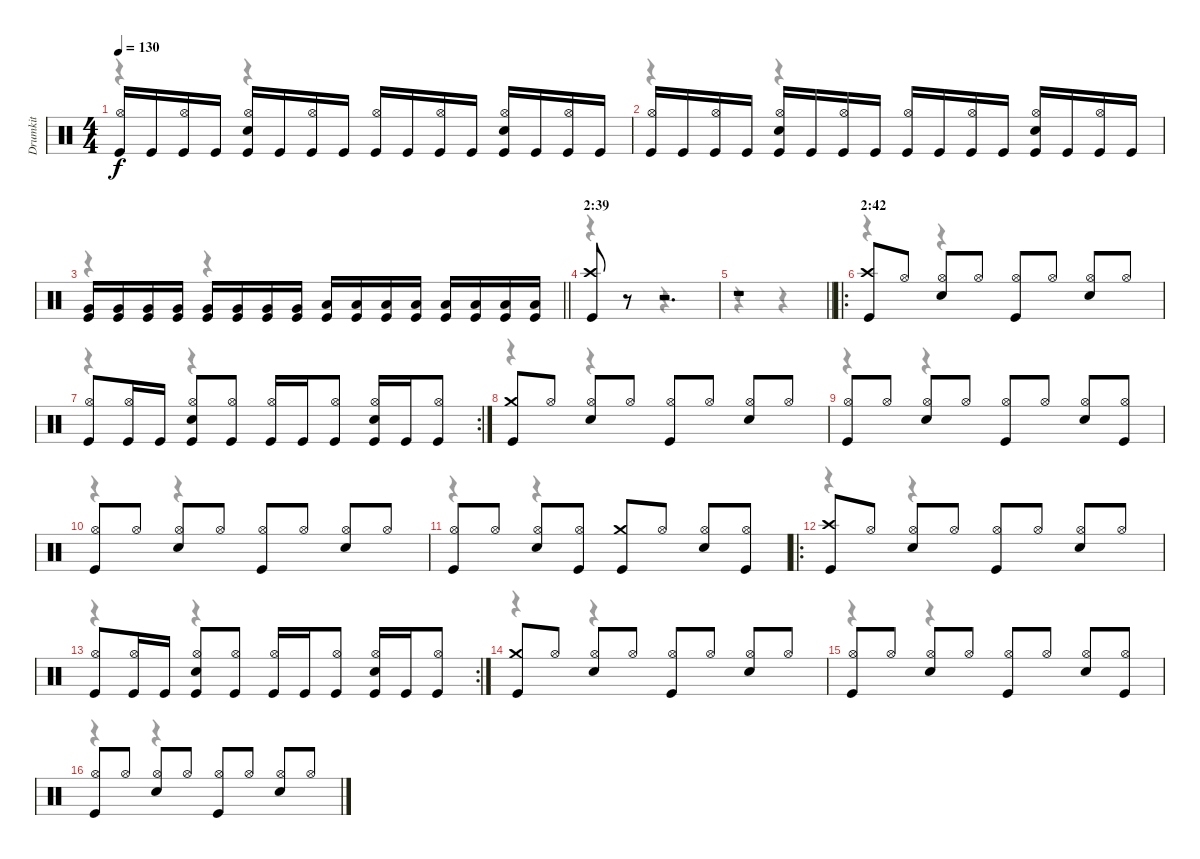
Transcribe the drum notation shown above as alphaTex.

\track ("Drumkit" "Drumkit") {instrument percussion}
\staff {score}
\articulation defaults
\voice
\ts (4 4)
\tempo 130
\clef neutral
\ks c
("Hi-Hat (open)" "Kick (hit)").16{dy f} "Kick (hit)".16 ("Hi-Hat (open)" "Kick (hit)").16 "Kick (hit)".16 ("Hi-Hat (open)" "Snare (hit) 2" "Kick (hit)").16 "Kick (hit)".16 ("Hi-Hat (open)" "Kick (hit)").16 "Kick (hit)".16 ("Hi-Hat (open)" "Kick (hit)").16 "Kick (hit)".16 ("Hi-Hat (open)" "Kick (hit)").16 "Kick (hit)".16 ("Hi-Hat (open)" "Snare (hit) 2" "Kick (hit)").16 "Kick (hit)".16 ("Hi-Hat (open)" "Kick (hit)").16 "Kick (hit)".16 |
("Hi-Hat (open)" "Kick (hit)").16 "Kick (hit)".16 ("Hi-Hat (open)" "Kick (hit)").16 "Kick (hit)".16 ("Hi-Hat (open)" "Snare (hit) 2" "Kick (hit)").16 "Kick (hit)".16 ("Hi-Hat (open)" "Kick (hit)").16 "Kick (hit)".16 ("Hi-Hat (open)" "Kick (hit)").16 "Kick (hit)".16 ("Hi-Hat (open)" "Kick (hit)").16 "Kick (hit)".16 ("Hi-Hat (open)" "Snare (hit) 2" "Kick (hit)").16 "Kick (hit)".16 ("Hi-Hat (open)" "Kick (hit)").16 "Kick (hit)".16 |
\barLineRight lightlight
("Very Low Tom (hit)" "Kick (hit)").16 ("Very Low Tom (hit)" "Kick (hit)").16 ("Very Low Tom (hit)" "Kick (hit)").16 ("Very Low Tom (hit)" "Kick (hit)").16 ("Very Low Tom (hit)" "Kick (hit)").16 ("Very Low Tom (hit)" "Kick (hit)").16 ("Very Low Tom (hit)" "Kick (hit)").16 ("Very Low Tom (hit)" "Kick (hit)").16 ("Low Floor Tom (hit)" "Kick (hit)").16 ("Low Floor Tom (hit)" "Kick (hit)").16 ("Low Floor Tom (hit)" "Kick (hit)").16 ("Low Floor Tom (hit)" "Kick (hit)").16 ("Low Floor Tom (hit)" "Kick (hit)").16 ("Low Floor Tom (hit)" "Kick (hit)").16 ("Low Floor Tom (hit)" "Kick (hit)").16 ("Low Floor Tom (hit)" "Kick (hit)").16 |
\section ("" "2:39")
("Crash high (hit)" "Kick (hit)").8 r.8 r.2{d} |
\barLineRight lightlight
r.1 |
\ro
\section ("" "2:42")
("Crash high (hit)" "Kick (hit)").8 "Hi-Hat (open)".8 ("Hi-Hat (open)" "Snare (hit) 2").8 "Hi-Hat (open)".8 ("Hi-Hat (open)" "Kick (hit)").8 "Hi-Hat (open)".8 ("Hi-Hat (open)" "Snare (hit) 2").8 "Hi-Hat (open)".8 |
\rc 2
("Hi-Hat (open)" "Kick (hit)").8 ("Hi-Hat (open)" "Kick (hit)").16 "Kick (hit)".16 ("Hi-Hat (open)" "Snare (hit) 2" "Kick (hit)").8 ("Hi-Hat (open)" "Kick (hit)").8 ("Hi-Hat (open)" "Kick (hit)").16 "Kick (hit)".16 ("Hi-Hat (open)" "Kick (hit)").8 ("Hi-Hat (open)" "Snare (hit) 2" "Kick (hit)").16 "Kick (hit)".16 ("Hi-Hat (open)" "Kick (hit)").8 |
("Crash medium (hit)" "Kick (hit)").8 "Hi-Hat (open)".8 ("Hi-Hat (open)" "Snare (hit) 2").8 "Hi-Hat (open)".8 ("Hi-Hat (open)" "Kick (hit)").8 "Hi-Hat (open)".8 ("Hi-Hat (open)" "Snare (hit) 2").8 "Hi-Hat (open)".8 |
("Hi-Hat (open)" "Kick (hit)").8 "Hi-Hat (open)".8 ("Hi-Hat (open)" "Snare (hit) 2").8 "Hi-Hat (open)".8 ("Hi-Hat (open)" "Kick (hit)").8 "Hi-Hat (open)".8 ("Hi-Hat (open)" "Snare (hit) 2").8 ("Hi-Hat (open)" "Kick (hit)").8 |
("Hi-Hat (open)" "Kick (hit)").8 "Hi-Hat (open)".8 ("Hi-Hat (open)" "Snare (hit) 2").8 "Hi-Hat (open)".8 ("Hi-Hat (open)" "Kick (hit)").8 "Hi-Hat (open)".8 ("Hi-Hat (open)" "Snare (hit) 2").8 "Hi-Hat (open)".8 |
("Hi-Hat (open)" "Kick (hit)").8 "Hi-Hat (open)".8 ("Hi-Hat (open)" "Snare (hit) 2").8 ("Hi-Hat (open)" "Kick (hit)").8 ("Crash medium (hit)" "Kick (hit)").8 "Hi-Hat (open)".8 ("Hi-Hat (open)" "Snare (hit) 2").8 ("Hi-Hat (open)" "Kick (hit)").8 |
\ro
("Crash high (hit)" "Kick (hit)").8 "Hi-Hat (open)".8 ("Hi-Hat (open)" "Snare (hit) 2").8 "Hi-Hat (open)".8 ("Hi-Hat (open)" "Kick (hit)").8 "Hi-Hat (open)".8 ("Hi-Hat (open)" "Snare (hit) 2").8 "Hi-Hat (open)".8 |
\rc 2
("Hi-Hat (open)" "Kick (hit)").8 ("Hi-Hat (open)" "Kick (hit)").16 "Kick (hit)".16 ("Hi-Hat (open)" "Snare (hit) 2" "Kick (hit)").8 ("Hi-Hat (open)" "Kick (hit)").8 ("Hi-Hat (open)" "Kick (hit)").16 "Kick (hit)".16 ("Hi-Hat (open)" "Kick (hit)").8 ("Hi-Hat (open)" "Snare (hit) 2" "Kick (hit)").16 "Kick (hit)".16 ("Hi-Hat (open)" "Kick (hit)").8 |
("Crash medium (hit)" "Kick (hit)").8 "Hi-Hat (open)".8 ("Hi-Hat (open)" "Snare (hit) 2").8 "Hi-Hat (open)".8 ("Hi-Hat (open)" "Kick (hit)").8 "Hi-Hat (open)".8 ("Hi-Hat (open)" "Snare (hit) 2").8 "Hi-Hat (open)".8 |
("Hi-Hat (open)" "Kick (hit)").8 "Hi-Hat (open)".8 ("Hi-Hat (open)" "Snare (hit) 2").8 "Hi-Hat (open)".8 ("Hi-Hat (open)" "Kick (hit)").8 "Hi-Hat (open)".8 ("Hi-Hat (open)" "Snare (hit) 2").8 ("Hi-Hat (open)" "Kick (hit)").8 |
("Hi-Hat (open)" "Kick (hit)").8 "Hi-Hat (open)".8 ("Hi-Hat (open)" "Snare (hit) 2").8 "Hi-Hat (open)".8 ("Hi-Hat (open)" "Kick (hit)").8 "Hi-Hat (open)".8 ("Hi-Hat (open)" "Snare (hit) 2").8 "Hi-Hat (open)".8
\voice
\clef neutral
\ottava regular
\simile none
\ks c
r.4{dy f} r.4 |
r.4 r.4 |
\barLineRight lightlight
r.4 r.4 |
r.4 r.4 |
\barLineRight lightlight
r.4 r.4 |
r.4 r.4 |
r.4 r.4 |
r.4 r.4 |
r.4 r.4 |
r.4 r.4 |
r.4 r.4 |
r.4 r.4 |
r.4 r.4 |
r.4 r.4 |
r.4 r.4 |
r.4 r.4
